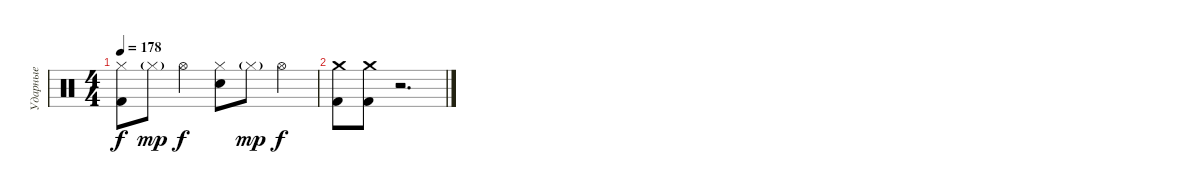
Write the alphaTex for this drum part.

\track ("Ударные" "Ударные") {instrument percussion}
\staff {score}
\articulation defaults
\ts (4 4)
\tempo 178
\clef neutral
\ks c
("Hi-Hat (closed)" "Kick (hit) 2").8{dy f} "Hi-Hat (closed)"{g}.8{dy mp} "Hi-Hat (open)".4{dy f} ("Hi-Hat (closed)" "Electric Snare (hit)").8 "Hi-Hat (closed)"{g}.8{dy mp} "Hi-Hat (open)".4{dy f} |
("Crash medium (hit)" "Kick (hit) 2").8 ("Crash medium (hit)" "Kick (hit) 2").8 r.2{d}
